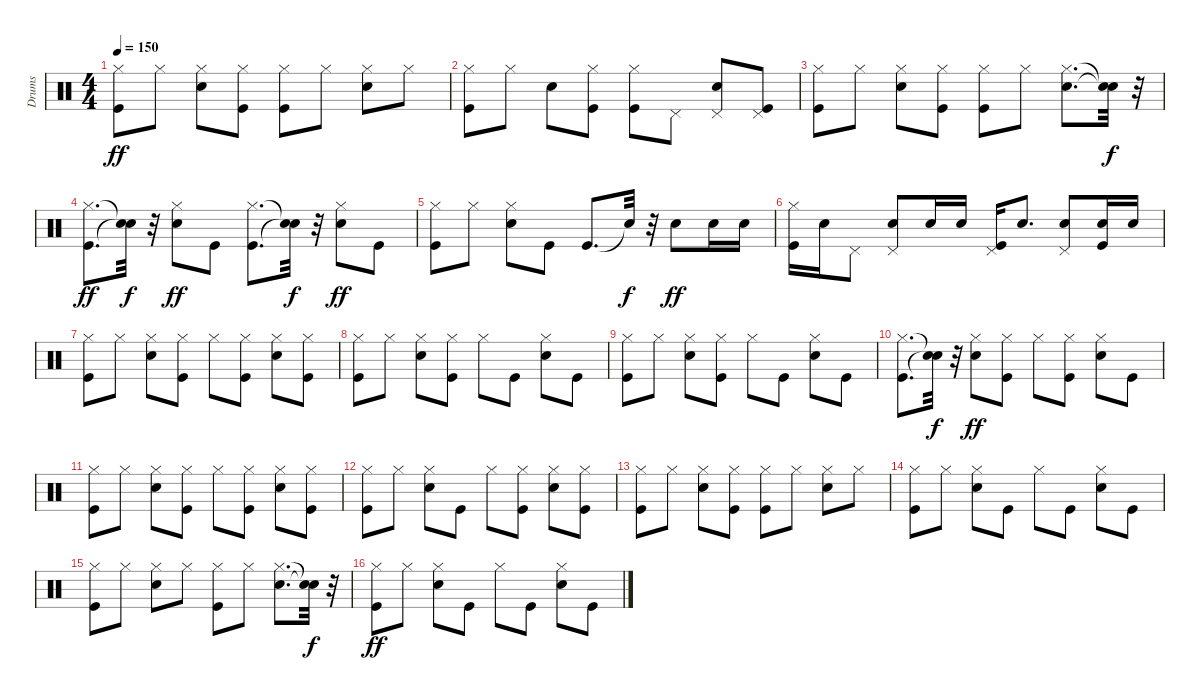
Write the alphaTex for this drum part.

\track ("Drums" "Drums") {instrument percussion}
\staff {score}
\articulation defaults
\ts (4 4)
\tempo 150
\clef neutral
\ks c
("Kick (hit)" "Hi-Hat (closed)").8{dy ff} "Hi-Hat (closed)".8 ("Snare (hit) 2" "Hi-Hat (closed)").8 ("Kick (hit)" "Hi-Hat (closed)").8 ("Kick (hit)" "Hi-Hat (closed)").8 "Hi-Hat (closed)".8 ("Snare (hit) 2" "Hi-Hat (closed)").8 "Hi-Hat (closed)".8 |
("Kick (hit)" "Hi-Hat (closed)").8 "Hi-Hat (closed)".8 "Snare (hit) 2".8 ("Kick (hit)" "Hi-Hat (closed)").8 ("Kick (hit)" "Hi-Hat (closed)").8 "Pedal Hi-Hat (hit)".8 ("Snare (hit) 2" "Pedal Hi-Hat (hit)").8 ("Kick (hit)" "Pedal Hi-Hat (hit)").8 |
("Kick (hit)" "Hi-Hat (closed)").8 "Hi-Hat (closed)".8 ("Snare (hit) 2" "Hi-Hat (closed)").8 ("Kick (hit)" "Hi-Hat (closed)").8 ("Kick (hit)" "Hi-Hat (closed)").8 "Hi-Hat (closed)".8 ("Snare (hit) 2" "Hi-Hat (closed)").8{d} ("Snare (hit)"{t} "Snare (hit)"{t}).32{dy f} r.32 |
("Kick (hit)" "Hi-Hat (closed)").8{d dy ff} ("Snare (hit)"{t} "Snare (hit)"{t}).32{dy f} r.32 ("Snare (hit) 2" "Hi-Hat (closed)").8{dy ff} "Kick (hit)".8 ("Kick (hit)" "Hi-Hat (closed)").8{d} ("Snare (hit)"{t} "Snare (hit)"{t}).32{dy f} r.32 ("Snare (hit) 2" "Hi-Hat (closed)").8{dy ff} "Kick (hit)".8 |
("Kick (hit)" "Hi-Hat (closed)").8 "Hi-Hat (closed)".8 ("Snare (hit) 2" "Hi-Hat (closed)").8 "Kick (hit)".8 "Kick (hit)".8{d} "Snare (hit)"{t}.32{dy f} r.32 "Snare (hit) 2".8{dy ff} "Snare (hit) 2".16 "Snare (hit) 2".16 |
("Kick (hit)" "Hi-Hat (closed)").16 "Snare (hit) 2".16 "Pedal Hi-Hat (hit)".8 ("Snare (hit) 2" "Pedal Hi-Hat (hit)").8 "Snare (hit) 2".16 "Snare (hit) 2".16 ("Kick (hit)" "Pedal Hi-Hat (hit)").16 "Snare (hit) 2".8{d} ("Snare (hit) 2" "Pedal Hi-Hat (hit)").8 ("Kick (hit)" "Snare (hit) 2").16 "Snare (hit) 2".16 |
("Kick (hit)" "Hi-Hat (closed)").8 "Hi-Hat (closed)".8 ("Snare (hit) 2" "Hi-Hat (closed)").8 ("Kick (hit)" "Hi-Hat (closed)").8 "Hi-Hat (closed)".8 ("Kick (hit)" "Hi-Hat (closed)").8 ("Snare (hit) 2" "Hi-Hat (closed)").8 ("Kick (hit)" "Hi-Hat (closed)").8 |
("Kick (hit)" "Hi-Hat (closed)").8 "Hi-Hat (closed)".8 ("Snare (hit) 2" "Hi-Hat (closed)").8 ("Kick (hit)" "Hi-Hat (closed)").8 "Hi-Hat (closed)".8 "Kick (hit)".8 ("Snare (hit) 2" "Hi-Hat (closed)").8 "Kick (hit)".8 |
("Kick (hit)" "Hi-Hat (closed)").8 "Hi-Hat (closed)".8 ("Snare (hit) 2" "Hi-Hat (closed)").8 ("Kick (hit)" "Hi-Hat (closed)").8 "Hi-Hat (closed)".8 "Kick (hit)".8 ("Snare (hit) 2" "Hi-Hat (closed)").8 "Kick (hit)".8 |
("Kick (hit)" "Hi-Hat (closed)").8{d} ("Snare (hit)"{t} "Snare (hit)"{t}).32{dy f} r.32 ("Snare (hit) 2" "Hi-Hat (closed)").8{dy ff} ("Kick (hit)" "Hi-Hat (closed)").8 "Hi-Hat (closed)".8 ("Kick (hit)" "Hi-Hat (closed)").8 ("Snare (hit) 2" "Hi-Hat (closed)").8 "Kick (hit)".8 |
("Kick (hit)" "Hi-Hat (closed)").8 "Hi-Hat (closed)".8 ("Snare (hit) 2" "Hi-Hat (closed)").8 ("Kick (hit)" "Hi-Hat (closed)").8 "Hi-Hat (closed)".8 ("Kick (hit)" "Hi-Hat (closed)").8 ("Snare (hit) 2" "Hi-Hat (closed)").8 ("Kick (hit)" "Hi-Hat (closed)").8 |
("Kick (hit)" "Hi-Hat (closed)").8 "Hi-Hat (closed)".8 ("Snare (hit) 2" "Hi-Hat (closed)").8 "Kick (hit)".8 "Hi-Hat (closed)".8 ("Kick (hit)" "Hi-Hat (closed)").8 ("Snare (hit) 2" "Hi-Hat (closed)").8 ("Kick (hit)" "Hi-Hat (closed)").8 |
("Kick (hit)" "Hi-Hat (closed)").8 "Hi-Hat (closed)".8 ("Snare (hit) 2" "Hi-Hat (closed)").8 ("Kick (hit)" "Hi-Hat (closed)").8 ("Kick (hit)" "Hi-Hat (closed)").8 "Hi-Hat (closed)".8 ("Snare (hit) 2" "Hi-Hat (closed)").8 "Hi-Hat (closed)".8 |
("Kick (hit)" "Hi-Hat (closed)").8 "Hi-Hat (closed)".8 ("Snare (hit) 2" "Hi-Hat (closed)").8 "Kick (hit)".8 "Hi-Hat (closed)".8 "Kick (hit)".8 ("Snare (hit) 2" "Hi-Hat (closed)").8 "Kick (hit)".8 |
("Kick (hit)" "Hi-Hat (closed)").8 "Hi-Hat (closed)".8 ("Snare (hit) 2" "Hi-Hat (closed)").8 "Hi-Hat (closed)".8 ("Kick (hit)" "Hi-Hat (closed)").8 "Hi-Hat (closed)".8 ("Snare (hit) 2" "Hi-Hat (closed)").8{d} ("Snare (hit)"{t} "Snare (hit)"{t}).32{dy f} r.32 |
("Kick (hit)" "Hi-Hat (closed)").8{dy ff} "Hi-Hat (closed)".8 ("Snare (hit) 2" "Hi-Hat (closed)").8 "Kick (hit)".8 "Hi-Hat (closed)".8 "Kick (hit)".8 ("Snare (hit) 2" "Hi-Hat (closed)").8 "Kick (hit)".8
